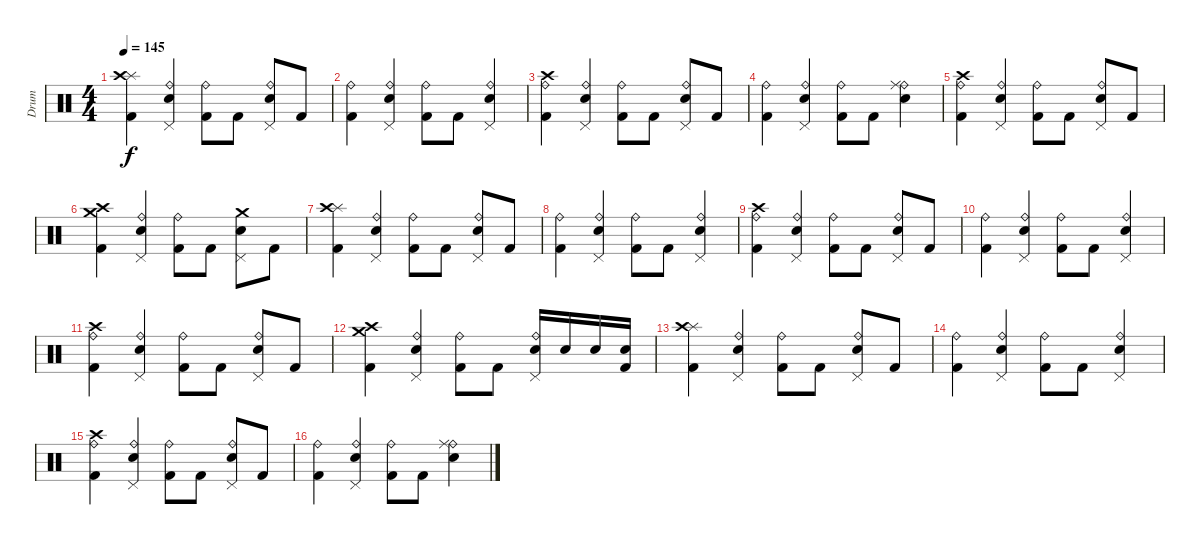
\track ("Drum" "Drum") {instrument percussion}
\staff {score}
\articulation defaults
\ts (4 4)
\tempo 145
\clef neutral
\ks c
("Splash (hit)" "Crash high (hit)" "Kick (hit) 2").4{dy f} ("Ride (bell)" "Snare (hit) 2" "Pedal Hi-Hat (hit)").4 ("Ride (bell)" "Kick (hit) 2").8 "Kick (hit) 2".8 ("Ride (bell)" "Snare (hit) 2" "Pedal Hi-Hat (hit)").8 "Kick (hit) 2".8 |
("Ride (bell)" "Kick (hit) 2").4 ("Ride (bell)" "Snare (hit) 2" "Pedal Hi-Hat (hit)").4 ("Ride (bell)" "Kick (hit) 2").8 "Kick (hit) 2".8 ("Ride (bell)" "Snare (hit) 2" "Pedal Hi-Hat (hit)").4 |
("Ride (bell)" "Crash high (hit)" "Kick (hit) 2").4 ("Ride (bell)" "Snare (hit) 2" "Pedal Hi-Hat (hit)").4 ("Ride (bell)" "Kick (hit) 2").8 "Kick (hit) 2".8 ("Ride (bell)" "Snare (hit) 2" "Pedal Hi-Hat (hit)").8 "Kick (hit) 2".8 |
("Ride (bell)" "Kick (hit) 2").4 ("Ride (bell)" "Snare (hit) 2" "Pedal Hi-Hat (hit)").4 ("Ride (bell)" "Kick (hit) 2").8 "Kick (hit) 2".8 ("Ride (bell)" "Snare (hit) 2" "Ride (middle)").4 |
("Ride (bell)" "Crash high (hit)" "Kick (hit) 2").4 ("Ride (bell)" "Snare (hit) 2" "Pedal Hi-Hat (hit)").4 ("Ride (bell)" "Kick (hit) 2").8 "Kick (hit) 2".8 ("Ride (bell)" "Snare (hit) 2" "Pedal Hi-Hat (hit)").8 "Kick (hit) 2".8 |
("Crash medium (hit)" "Crash high (hit)" "Kick (hit) 2").4 ("Ride (bell)" "Snare (hit) 2" "Pedal Hi-Hat (hit)").4 ("Ride (bell)" "Kick (hit) 2").8 "Kick (hit) 2".8 ("Crash medium (hit)" "Snare (hit) 2" "Pedal Hi-Hat (hit)").8 "Kick (hit) 2".8 |
("Splash (hit)" "Crash high (hit)" "Kick (hit) 2").4 ("Ride (bell)" "Snare (hit) 2" "Pedal Hi-Hat (hit)").4 ("Ride (bell)" "Kick (hit) 2").8 "Kick (hit) 2".8 ("Ride (bell)" "Snare (hit) 2" "Pedal Hi-Hat (hit)").8 "Kick (hit) 2".8 |
("Ride (bell)" "Kick (hit) 2").4 ("Ride (bell)" "Snare (hit) 2" "Pedal Hi-Hat (hit)").4 ("Ride (bell)" "Kick (hit) 2").8 "Kick (hit) 2".8 ("Ride (bell)" "Snare (hit) 2" "Pedal Hi-Hat (hit)").4 |
("Ride (bell)" "Crash high (hit)" "Kick (hit) 2").4 ("Ride (bell)" "Snare (hit) 2" "Pedal Hi-Hat (hit)").4 ("Ride (bell)" "Kick (hit) 2").8 "Kick (hit) 2".8 ("Ride (bell)" "Snare (hit) 2" "Pedal Hi-Hat (hit)").8 "Kick (hit) 2".8 |
("Ride (bell)" "Kick (hit) 2").4 ("Ride (bell)" "Snare (hit) 2" "Pedal Hi-Hat (hit)").4 ("Ride (bell)" "Kick (hit) 2").8 "Kick (hit) 2".8 ("Ride (bell)" "Snare (hit) 2" "Pedal Hi-Hat (hit)").4 |
("Ride (bell)" "Crash high (hit)" "Kick (hit) 2").4 ("Ride (bell)" "Snare (hit) 2" "Pedal Hi-Hat (hit)").4 ("Ride (bell)" "Kick (hit) 2").8 "Kick (hit) 2".8 ("Ride (bell)" "Snare (hit) 2" "Pedal Hi-Hat (hit)").8 "Kick (hit) 2".8 |
("Crash medium (hit)" "Crash high (hit)" "Kick (hit) 2").4 ("Ride (bell)" "Snare (hit) 2" "Pedal Hi-Hat (hit)").4 ("Ride (bell)" "Kick (hit) 2").8 "Kick (hit) 2".8 ("Ride (bell)" "Snare (hit) 2" "Pedal Hi-Hat (hit)").16 "Snare (hit) 2".16 "Snare (hit) 2".16 ("Snare (hit) 2" "Kick (hit) 2").16 |
("Splash (hit)" "Crash high (hit)" "Kick (hit) 2").4 ("Ride (bell)" "Snare (hit) 2" "Pedal Hi-Hat (hit)").4 ("Ride (bell)" "Kick (hit) 2").8 "Kick (hit) 2".8 ("Ride (bell)" "Snare (hit) 2" "Pedal Hi-Hat (hit)").8 "Kick (hit) 2".8 |
("Ride (bell)" "Kick (hit) 2").4 ("Ride (bell)" "Snare (hit) 2" "Pedal Hi-Hat (hit)").4 ("Ride (bell)" "Kick (hit) 2").8 "Kick (hit) 2".8 ("Ride (bell)" "Snare (hit) 2" "Pedal Hi-Hat (hit)").4 |
("Ride (bell)" "Crash high (hit)" "Kick (hit) 2").4 ("Ride (bell)" "Snare (hit) 2" "Pedal Hi-Hat (hit)").4 ("Ride (bell)" "Kick (hit) 2").8 "Kick (hit) 2".8 ("Ride (bell)" "Snare (hit) 2" "Pedal Hi-Hat (hit)").8 "Kick (hit) 2".8 |
("Ride (bell)" "Kick (hit) 2").4 ("Ride (bell)" "Snare (hit) 2" "Pedal Hi-Hat (hit)").4 ("Ride (bell)" "Kick (hit) 2").8 "Kick (hit) 2".8 ("Ride (bell)" "Snare (hit) 2" "Ride (middle)").4
